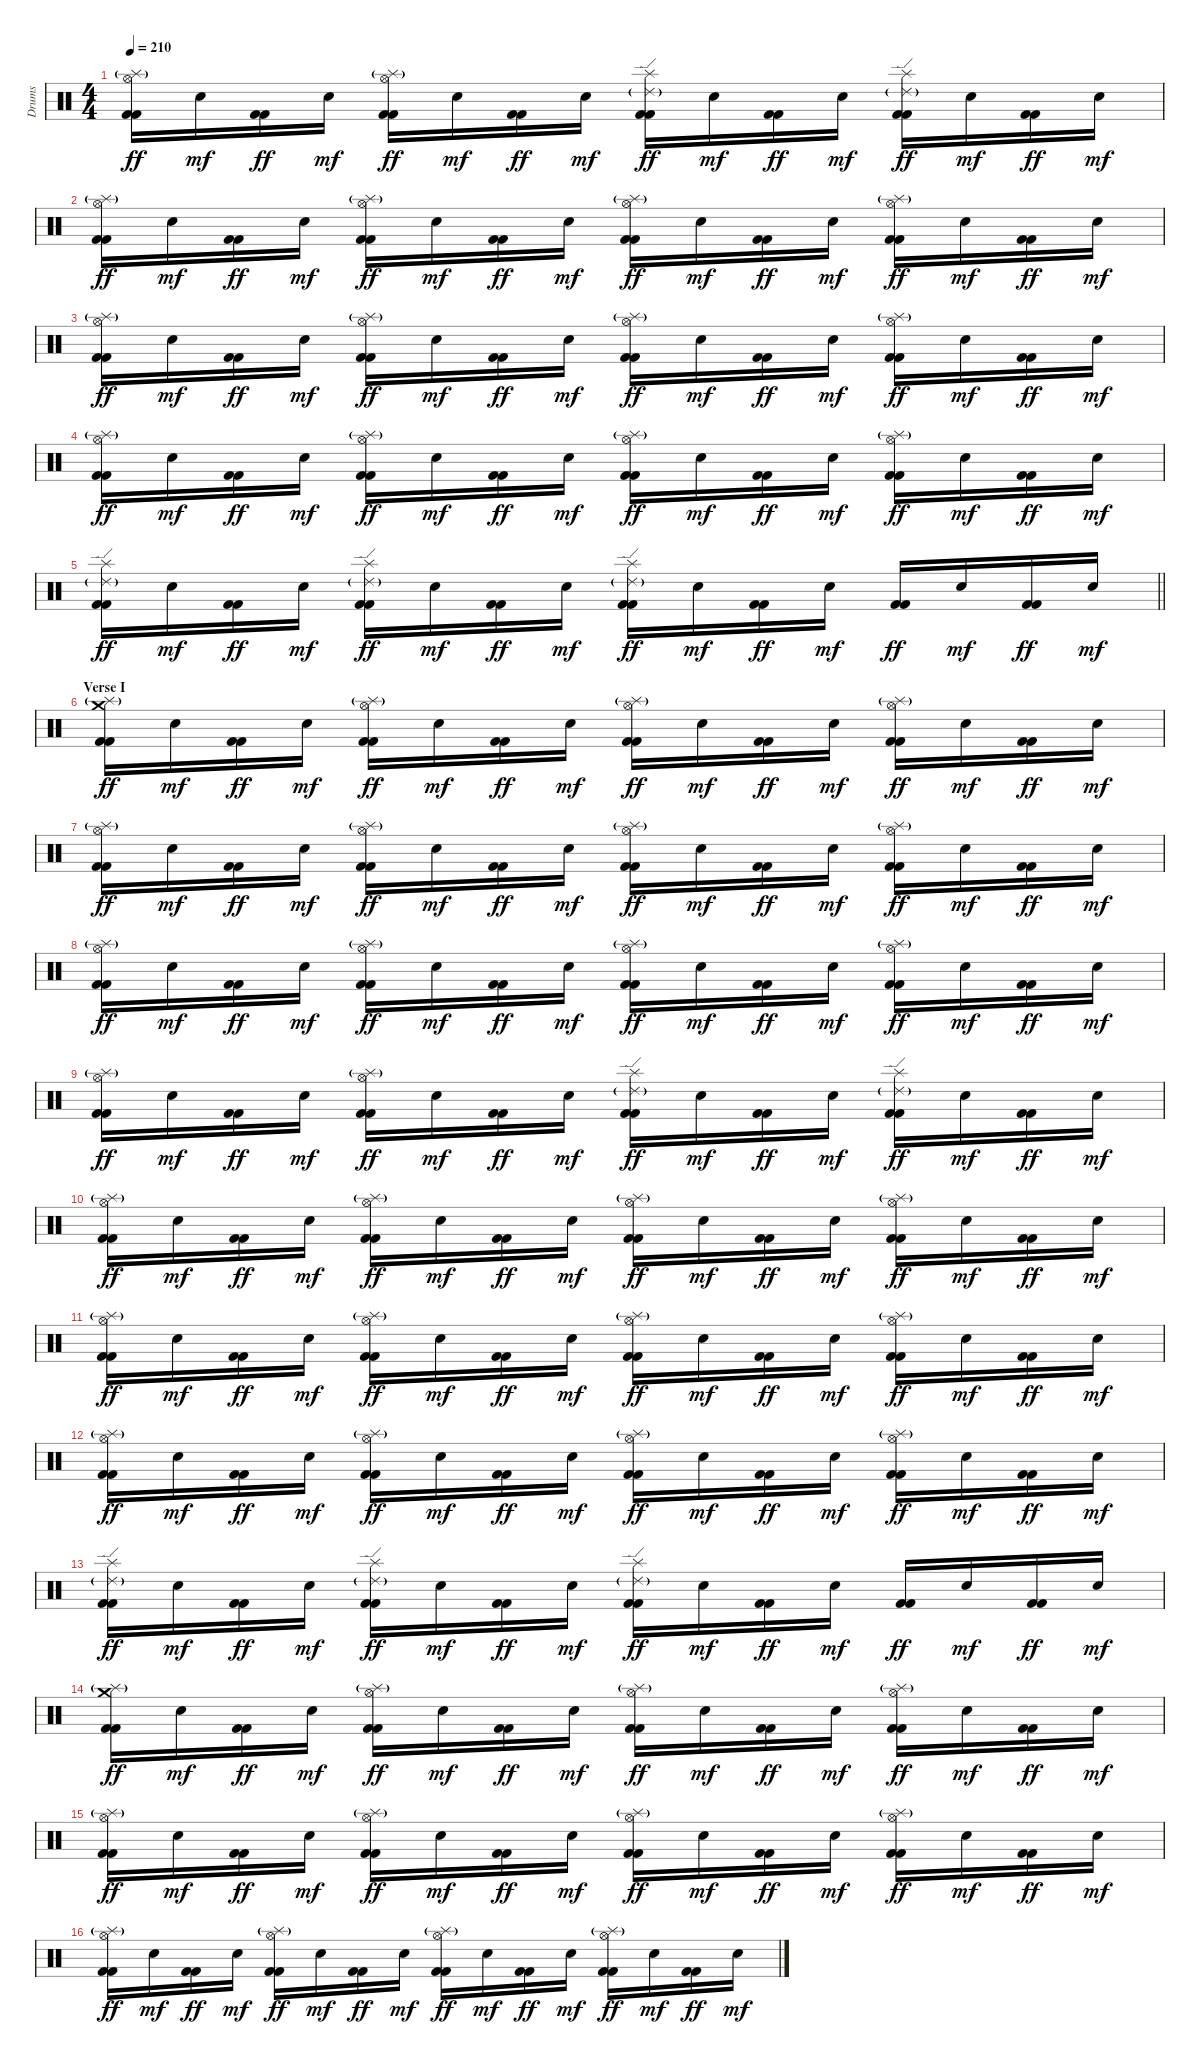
\track ("Drums" "Drums") {instrument percussion}
\staff {score}
\articulation defaults
\ts (4 4)
\tempo 210
\clef neutral
\ks c
("Hi-Hat (open)" "Splash (hit)"{g} "Kick (hit) 2" "Kick (hit) 2").16{dy ff} "Snare (hit) 2".16{dy mf} ("Kick (hit) 2" "Kick (hit) 2").16{dy ff} "Snare (hit) 2".16{dy mf} ("Hi-Hat (open)" "Splash (hit)"{g} "Kick (hit) 2" "Kick (hit) 2").16{dy ff} "Snare (hit) 2".16{dy mf} ("Kick (hit) 2" "Kick (hit) 2").16{dy ff} "Snare (hit) 2".16{dy mf} ("Splash (hit)" "Ride (edge) 2"{g} "Kick (hit) 2" "Kick (hit) 2").16{dy ff} "Snare (hit) 2".16{dy mf} ("Kick (hit) 2" "Kick (hit) 2").16{dy ff} "Snare (hit) 2".16{dy mf} ("Splash (hit)" "Ride (edge) 2"{g} "Kick (hit) 2" "Kick (hit) 2").16{dy ff} "Snare (hit) 2".16{dy mf} ("Kick (hit) 2" "Kick (hit) 2").16{dy ff} "Snare (hit) 2".16{dy mf} |
("Hi-Hat (open)" "Splash (hit)"{g} "Kick (hit) 2" "Kick (hit) 2").16{dy ff} "Snare (hit) 2".16{dy mf} ("Kick (hit) 2" "Kick (hit) 2").16{dy ff} "Snare (hit) 2".16{dy mf} ("Hi-Hat (open)" "Splash (hit)"{g} "Kick (hit) 2" "Kick (hit) 2").16{dy ff} "Snare (hit) 2".16{dy mf} ("Kick (hit) 2" "Kick (hit) 2").16{dy ff} "Snare (hit) 2".16{dy mf} ("Hi-Hat (open)" "Splash (hit)"{g} "Kick (hit) 2" "Kick (hit) 2").16{dy ff} "Snare (hit) 2".16{dy mf} ("Kick (hit) 2" "Kick (hit) 2").16{dy ff} "Snare (hit) 2".16{dy mf} ("Hi-Hat (open)" "Splash (hit)"{g} "Kick (hit) 2" "Kick (hit) 2").16{dy ff} "Snare (hit) 2".16{dy mf} ("Kick (hit) 2" "Kick (hit) 2").16{dy ff} "Snare (hit) 2".16{dy mf} |
("Hi-Hat (open)" "Splash (hit)"{g} "Kick (hit) 2" "Kick (hit) 2").16{dy ff} "Snare (hit) 2".16{dy mf} ("Kick (hit) 2" "Kick (hit) 2").16{dy ff} "Snare (hit) 2".16{dy mf} ("Hi-Hat (open)" "Splash (hit)"{g} "Kick (hit) 2" "Kick (hit) 2").16{dy ff} "Snare (hit) 2".16{dy mf} ("Kick (hit) 2" "Kick (hit) 2").16{dy ff} "Snare (hit) 2".16{dy mf} ("Hi-Hat (open)" "Splash (hit)"{g} "Kick (hit) 2" "Kick (hit) 2").16{dy ff} "Snare (hit) 2".16{dy mf} ("Kick (hit) 2" "Kick (hit) 2").16{dy ff} "Snare (hit) 2".16{dy mf} ("Hi-Hat (open)" "Splash (hit)"{g} "Kick (hit) 2" "Kick (hit) 2").16{dy ff} "Snare (hit) 2".16{dy mf} ("Kick (hit) 2" "Kick (hit) 2").16{dy ff} "Snare (hit) 2".16{dy mf} |
("Hi-Hat (open)" "Splash (hit)"{g} "Kick (hit) 2" "Kick (hit) 2").16{dy ff} "Snare (hit) 2".16{dy mf} ("Kick (hit) 2" "Kick (hit) 2").16{dy ff} "Snare (hit) 2".16{dy mf} ("Hi-Hat (open)" "Splash (hit)"{g} "Kick (hit) 2" "Kick (hit) 2").16{dy ff} "Snare (hit) 2".16{dy mf} ("Kick (hit) 2" "Kick (hit) 2").16{dy ff} "Snare (hit) 2".16{dy mf} ("Hi-Hat (open)" "Splash (hit)"{g} "Kick (hit) 2" "Kick (hit) 2").16{dy ff} "Snare (hit) 2".16{dy mf} ("Kick (hit) 2" "Kick (hit) 2").16{dy ff} "Snare (hit) 2".16{dy mf} ("Hi-Hat (open)" "Splash (hit)"{g} "Kick (hit) 2" "Kick (hit) 2").16{dy ff} "Snare (hit) 2".16{dy mf} ("Kick (hit) 2" "Kick (hit) 2").16{dy ff} "Snare (hit) 2".16{dy mf} |
\barLineRight lightlight
("Splash (hit)" "Ride (edge) 2"{g} "Kick (hit) 2" "Kick (hit) 2").16{dy ff} "Snare (hit) 2".16{dy mf} ("Kick (hit) 2" "Kick (hit) 2").16{dy ff} "Snare (hit) 2".16{dy mf} ("Splash (hit)" "Ride (edge) 2"{g} "Kick (hit) 2" "Kick (hit) 2").16{dy ff} "Snare (hit) 2".16{dy mf} ("Kick (hit) 2" "Kick (hit) 2").16{dy ff} "Snare (hit) 2".16{dy mf} ("Splash (hit)" "Ride (edge) 2"{g} "Kick (hit) 2" "Kick (hit) 2").16{dy ff} "Snare (hit) 2".16{dy mf} ("Kick (hit) 2" "Kick (hit) 2").16{dy ff} "Snare (hit) 2".16{dy mf} ("Kick (hit) 2" "Kick (hit) 2").16{dy ff} "Snare (hit) 2".16{dy mf} ("Kick (hit) 2" "Kick (hit) 2").16{dy ff} "Snare (hit) 2".16{dy mf} |
\section ("" "Verse I")
("Crash medium (hit)" "Splash (hit)"{g} "Kick (hit) 2" "Kick (hit) 2").16{dy ff} "Snare (hit) 2".16{dy mf} ("Kick (hit) 2" "Kick (hit) 2").16{dy ff} "Snare (hit) 2".16{dy mf} ("Hi-Hat (open)" "Splash (hit)"{g} "Kick (hit) 2" "Kick (hit) 2").16{dy ff} "Snare (hit) 2".16{dy mf} ("Kick (hit) 2" "Kick (hit) 2").16{dy ff} "Snare (hit) 2".16{dy mf} ("Hi-Hat (open)" "Splash (hit)"{g} "Kick (hit) 2" "Kick (hit) 2").16{dy ff} "Snare (hit) 2".16{dy mf} ("Kick (hit) 2" "Kick (hit) 2").16{dy ff} "Snare (hit) 2".16{dy mf} ("Hi-Hat (open)" "Splash (hit)"{g} "Kick (hit) 2" "Kick (hit) 2").16{dy ff} "Snare (hit) 2".16{dy mf} ("Kick (hit) 2" "Kick (hit) 2").16{dy ff} "Snare (hit) 2".16{dy mf} |
("Hi-Hat (open)" "Splash (hit)"{g} "Kick (hit) 2" "Kick (hit) 2").16{dy ff} "Snare (hit) 2".16{dy mf} ("Kick (hit) 2" "Kick (hit) 2").16{dy ff} "Snare (hit) 2".16{dy mf} ("Hi-Hat (open)" "Splash (hit)"{g} "Kick (hit) 2" "Kick (hit) 2").16{dy ff} "Snare (hit) 2".16{dy mf} ("Kick (hit) 2" "Kick (hit) 2").16{dy ff} "Snare (hit) 2".16{dy mf} ("Hi-Hat (open)" "Splash (hit)"{g} "Kick (hit) 2" "Kick (hit) 2").16{dy ff} "Snare (hit) 2".16{dy mf} ("Kick (hit) 2" "Kick (hit) 2").16{dy ff} "Snare (hit) 2".16{dy mf} ("Hi-Hat (open)" "Splash (hit)"{g} "Kick (hit) 2" "Kick (hit) 2").16{dy ff} "Snare (hit) 2".16{dy mf} ("Kick (hit) 2" "Kick (hit) 2").16{dy ff} "Snare (hit) 2".16{dy mf} |
("Hi-Hat (open)" "Splash (hit)"{g} "Kick (hit) 2" "Kick (hit) 2").16{dy ff} "Snare (hit) 2".16{dy mf} ("Kick (hit) 2" "Kick (hit) 2").16{dy ff} "Snare (hit) 2".16{dy mf} ("Hi-Hat (open)" "Splash (hit)"{g} "Kick (hit) 2" "Kick (hit) 2").16{dy ff} "Snare (hit) 2".16{dy mf} ("Kick (hit) 2" "Kick (hit) 2").16{dy ff} "Snare (hit) 2".16{dy mf} ("Hi-Hat (open)" "Splash (hit)"{g} "Kick (hit) 2" "Kick (hit) 2").16{dy ff} "Snare (hit) 2".16{dy mf} ("Kick (hit) 2" "Kick (hit) 2").16{dy ff} "Snare (hit) 2".16{dy mf} ("Hi-Hat (open)" "Splash (hit)"{g} "Kick (hit) 2" "Kick (hit) 2").16{dy ff} "Snare (hit) 2".16{dy mf} ("Kick (hit) 2" "Kick (hit) 2").16{dy ff} "Snare (hit) 2".16{dy mf} |
("Hi-Hat (open)" "Splash (hit)"{g} "Kick (hit) 2" "Kick (hit) 2").16{dy ff} "Snare (hit) 2".16{dy mf} ("Kick (hit) 2" "Kick (hit) 2").16{dy ff} "Snare (hit) 2".16{dy mf} ("Hi-Hat (open)" "Splash (hit)"{g} "Kick (hit) 2" "Kick (hit) 2").16{dy ff} "Snare (hit) 2".16{dy mf} ("Kick (hit) 2" "Kick (hit) 2").16{dy ff} "Snare (hit) 2".16{dy mf} ("Splash (hit)" "Ride (edge) 2"{g} "Kick (hit) 2" "Kick (hit) 2").16{dy ff} "Snare (hit) 2".16{dy mf} ("Kick (hit) 2" "Kick (hit) 2").16{dy ff} "Snare (hit) 2".16{dy mf} ("Splash (hit)" "Ride (edge) 2"{g} "Kick (hit) 2" "Kick (hit) 2").16{dy ff} "Snare (hit) 2".16{dy mf} ("Kick (hit) 2" "Kick (hit) 2").16{dy ff} "Snare (hit) 2".16{dy mf} |
("Hi-Hat (open)" "Splash (hit)"{g} "Kick (hit) 2" "Kick (hit) 2").16{dy ff} "Snare (hit) 2".16{dy mf} ("Kick (hit) 2" "Kick (hit) 2").16{dy ff} "Snare (hit) 2".16{dy mf} ("Hi-Hat (open)" "Splash (hit)"{g} "Kick (hit) 2" "Kick (hit) 2").16{dy ff} "Snare (hit) 2".16{dy mf} ("Kick (hit) 2" "Kick (hit) 2").16{dy ff} "Snare (hit) 2".16{dy mf} ("Hi-Hat (open)" "Splash (hit)"{g} "Kick (hit) 2" "Kick (hit) 2").16{dy ff} "Snare (hit) 2".16{dy mf} ("Kick (hit) 2" "Kick (hit) 2").16{dy ff} "Snare (hit) 2".16{dy mf} ("Hi-Hat (open)" "Splash (hit)"{g} "Kick (hit) 2" "Kick (hit) 2").16{dy ff} "Snare (hit) 2".16{dy mf} ("Kick (hit) 2" "Kick (hit) 2").16{dy ff} "Snare (hit) 2".16{dy mf} |
("Hi-Hat (open)" "Splash (hit)"{g} "Kick (hit) 2" "Kick (hit) 2").16{dy ff} "Snare (hit) 2".16{dy mf} ("Kick (hit) 2" "Kick (hit) 2").16{dy ff} "Snare (hit) 2".16{dy mf} ("Hi-Hat (open)" "Splash (hit)"{g} "Kick (hit) 2" "Kick (hit) 2").16{dy ff} "Snare (hit) 2".16{dy mf} ("Kick (hit) 2" "Kick (hit) 2").16{dy ff} "Snare (hit) 2".16{dy mf} ("Hi-Hat (open)" "Splash (hit)"{g} "Kick (hit) 2" "Kick (hit) 2").16{dy ff} "Snare (hit) 2".16{dy mf} ("Kick (hit) 2" "Kick (hit) 2").16{dy ff} "Snare (hit) 2".16{dy mf} ("Hi-Hat (open)" "Splash (hit)"{g} "Kick (hit) 2" "Kick (hit) 2").16{dy ff} "Snare (hit) 2".16{dy mf} ("Kick (hit) 2" "Kick (hit) 2").16{dy ff} "Snare (hit) 2".16{dy mf} |
("Hi-Hat (open)" "Splash (hit)"{g} "Kick (hit) 2" "Kick (hit) 2").16{dy ff} "Snare (hit) 2".16{dy mf} ("Kick (hit) 2" "Kick (hit) 2").16{dy ff} "Snare (hit) 2".16{dy mf} ("Hi-Hat (open)" "Splash (hit)"{g} "Kick (hit) 2" "Kick (hit) 2").16{dy ff} "Snare (hit) 2".16{dy mf} ("Kick (hit) 2" "Kick (hit) 2").16{dy ff} "Snare (hit) 2".16{dy mf} ("Hi-Hat (open)" "Splash (hit)"{g} "Kick (hit) 2" "Kick (hit) 2").16{dy ff} "Snare (hit) 2".16{dy mf} ("Kick (hit) 2" "Kick (hit) 2").16{dy ff} "Snare (hit) 2".16{dy mf} ("Hi-Hat (open)" "Splash (hit)"{g} "Kick (hit) 2" "Kick (hit) 2").16{dy ff} "Snare (hit) 2".16{dy mf} ("Kick (hit) 2" "Kick (hit) 2").16{dy ff} "Snare (hit) 2".16{dy mf} |
("Splash (hit)" "Ride (edge) 2"{g} "Kick (hit) 2" "Kick (hit) 2").16{dy ff} "Snare (hit) 2".16{dy mf} ("Kick (hit) 2" "Kick (hit) 2").16{dy ff} "Snare (hit) 2".16{dy mf} ("Splash (hit)" "Ride (edge) 2"{g} "Kick (hit) 2" "Kick (hit) 2").16{dy ff} "Snare (hit) 2".16{dy mf} ("Kick (hit) 2" "Kick (hit) 2").16{dy ff} "Snare (hit) 2".16{dy mf} ("Splash (hit)" "Ride (edge) 2"{g} "Kick (hit) 2" "Kick (hit) 2").16{dy ff} "Snare (hit) 2".16{dy mf} ("Kick (hit) 2" "Kick (hit) 2").16{dy ff} "Snare (hit) 2".16{dy mf} ("Kick (hit) 2" "Kick (hit) 2").16{dy ff} "Snare (hit) 2".16{dy mf} ("Kick (hit) 2" "Kick (hit) 2").16{dy ff} "Snare (hit) 2".16{dy mf} |
("Crash medium (hit)" "Splash (hit)"{g} "Kick (hit) 2" "Kick (hit) 2").16{dy ff} "Snare (hit) 2".16{dy mf} ("Kick (hit) 2" "Kick (hit) 2").16{dy ff} "Snare (hit) 2".16{dy mf} ("Hi-Hat (open)" "Splash (hit)"{g} "Kick (hit) 2" "Kick (hit) 2").16{dy ff} "Snare (hit) 2".16{dy mf} ("Kick (hit) 2" "Kick (hit) 2").16{dy ff} "Snare (hit) 2".16{dy mf} ("Hi-Hat (open)" "Splash (hit)"{g} "Kick (hit) 2" "Kick (hit) 2").16{dy ff} "Snare (hit) 2".16{dy mf} ("Kick (hit) 2" "Kick (hit) 2").16{dy ff} "Snare (hit) 2".16{dy mf} ("Hi-Hat (open)" "Splash (hit)"{g} "Kick (hit) 2" "Kick (hit) 2").16{dy ff} "Snare (hit) 2".16{dy mf} ("Kick (hit) 2" "Kick (hit) 2").16{dy ff} "Snare (hit) 2".16{dy mf} |
("Hi-Hat (open)" "Splash (hit)"{g} "Kick (hit) 2" "Kick (hit) 2").16{dy ff} "Snare (hit) 2".16{dy mf} ("Kick (hit) 2" "Kick (hit) 2").16{dy ff} "Snare (hit) 2".16{dy mf} ("Hi-Hat (open)" "Splash (hit)"{g} "Kick (hit) 2" "Kick (hit) 2").16{dy ff} "Snare (hit) 2".16{dy mf} ("Kick (hit) 2" "Kick (hit) 2").16{dy ff} "Snare (hit) 2".16{dy mf} ("Hi-Hat (open)" "Splash (hit)"{g} "Kick (hit) 2" "Kick (hit) 2").16{dy ff} "Snare (hit) 2".16{dy mf} ("Kick (hit) 2" "Kick (hit) 2").16{dy ff} "Snare (hit) 2".16{dy mf} ("Hi-Hat (open)" "Splash (hit)"{g} "Kick (hit) 2" "Kick (hit) 2").16{dy ff} "Snare (hit) 2".16{dy mf} ("Kick (hit) 2" "Kick (hit) 2").16{dy ff} "Snare (hit) 2".16{dy mf} |
("Hi-Hat (open)" "Splash (hit)"{g} "Kick (hit) 2" "Kick (hit) 2").16{dy ff} "Snare (hit) 2".16{dy mf} ("Kick (hit) 2" "Kick (hit) 2").16{dy ff} "Snare (hit) 2".16{dy mf} ("Hi-Hat (open)" "Splash (hit)"{g} "Kick (hit) 2" "Kick (hit) 2").16{dy ff} "Snare (hit) 2".16{dy mf} ("Kick (hit) 2" "Kick (hit) 2").16{dy ff} "Snare (hit) 2".16{dy mf} ("Hi-Hat (open)" "Splash (hit)"{g} "Kick (hit) 2" "Kick (hit) 2").16{dy ff} "Snare (hit) 2".16{dy mf} ("Kick (hit) 2" "Kick (hit) 2").16{dy ff} "Snare (hit) 2".16{dy mf} ("Hi-Hat (open)" "Splash (hit)"{g} "Kick (hit) 2" "Kick (hit) 2").16{dy ff} "Snare (hit) 2".16{dy mf} ("Kick (hit) 2" "Kick (hit) 2").16{dy ff} "Snare (hit) 2".16{dy mf}
